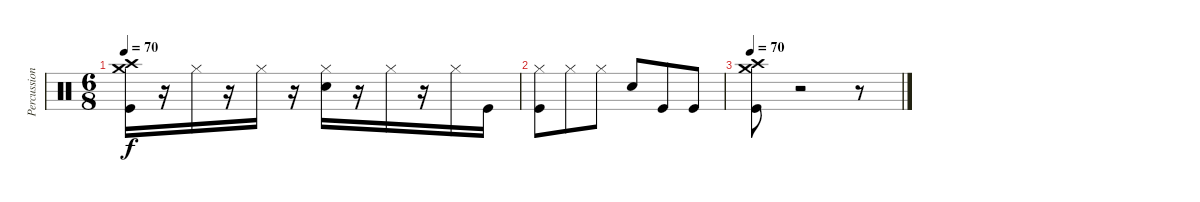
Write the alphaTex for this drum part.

\track ("Percussion" "Percussion") {instrument percussion}
\staff {score}
\articulation defaults
\ts (6 8)
\tempo 70
\clef neutral
\ks c
("Kick (hit)" "Crash high (hit)" "Crash medium (hit)").16{dy f} r.16 "Hi-Hat (closed)".16 r.16 "Hi-Hat (closed)".16 r.16 ("Electric Snare (hit)" "Hi-Hat (closed)").16 r.16 "Hi-Hat (closed)".16 r.16 "Hi-Hat (closed)".16 "Kick (hit)".16 |
("Kick (hit)" "Hi-Hat (closed)").8 "Hi-Hat (closed)".8 "Hi-Hat (closed)".8 "Electric Snare (hit)".8 "Kick (hit)".8 "Kick (hit)".8 |
\tempo 70
("Kick (hit)" "Crash high (hit)" "Crash medium (hit)").8 r.2 r.8
